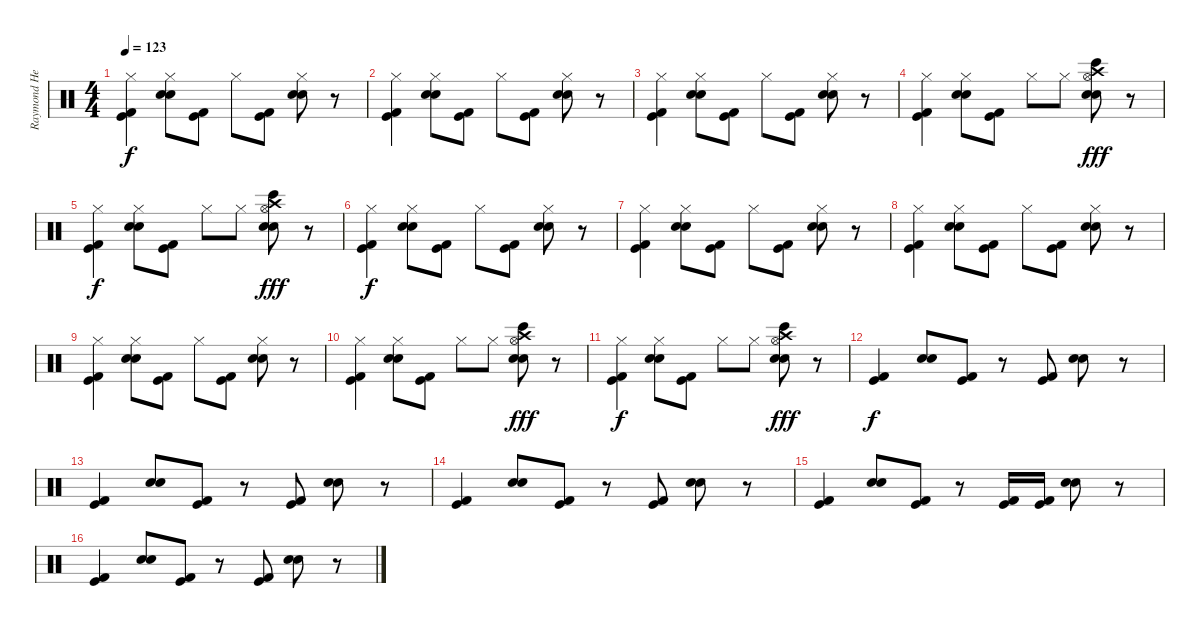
\track ("Raymond Herrera" "Raymond He") {instrument percussion}
\staff {score}
\articulation defaults
\ts (4 4)
\tempo 123
\clef neutral
\ks c
("Hi-Hat (closed)" "Kick (hit)" "Kick (hit) 2").4{dy f} ("Hi-Hat (closed)" "Electric Snare (hit)" "Electric Snare (hit)").8 ("Kick (hit)" "Kick (hit) 2").8 "Hi-Hat (closed)".8 ("Kick (hit) 2" "Kick (hit)").8 ("Hi-Hat (closed)" "Electric Snare (hit)" "Electric Snare (hit)").8 r.8 |
("Hi-Hat (closed)" "Kick (hit)" "Kick (hit) 2").4 ("Hi-Hat (closed)" "Electric Snare (hit)" "Electric Snare (hit)").8 ("Kick (hit)" "Kick (hit) 2").8 "Hi-Hat (closed)".8 ("Kick (hit) 2" "Kick (hit)").8 ("Hi-Hat (closed)" "Electric Snare (hit)" "Electric Snare (hit)").8 r.8 |
("Hi-Hat (closed)" "Kick (hit)" "Kick (hit) 2").4 ("Hi-Hat (closed)" "Electric Snare (hit)" "Electric Snare (hit)").8 ("Kick (hit)" "Kick (hit) 2").8 "Hi-Hat (closed)".8 ("Kick (hit) 2" "Kick (hit)").8 ("Hi-Hat (closed)" "Electric Snare (hit)" "Electric Snare (hit)").8 r.8 |
("Hi-Hat (closed)" "Kick (hit)" "Kick (hit) 2").4 ("Hi-Hat (closed)" "Electric Snare (hit)" "Electric Snare (hit)").8 ("Kick (hit)" "Kick (hit) 2").8 "Hi-Hat (closed)".8 "Hi-Hat (closed)".8 ("Hi-Hat (open)" "Crash high (hit)" "Electric Snare (hit)" "Electric Snare (hit)" "Bongo High (hit)").8{dy fff} r.8 |
("Hi-Hat (closed)" "Kick (hit)" "Kick (hit) 2").4{dy f} ("Hi-Hat (closed)" "Electric Snare (hit)" "Electric Snare (hit)").8 ("Kick (hit)" "Kick (hit) 2").8 "Hi-Hat (closed)".8 "Hi-Hat (closed)".8 ("Hi-Hat (open)" "Crash high (hit)" "Electric Snare (hit)" "Electric Snare (hit)" "Bongo High (hit)").8{dy fff} r.8 |
("Hi-Hat (closed)" "Kick (hit)" "Kick (hit) 2").4{dy f} ("Hi-Hat (closed)" "Electric Snare (hit)" "Electric Snare (hit)").8 ("Kick (hit)" "Kick (hit) 2").8 "Hi-Hat (closed)".8 ("Kick (hit) 2" "Kick (hit)").8 ("Hi-Hat (closed)" "Electric Snare (hit)" "Electric Snare (hit)").8 r.8 |
("Hi-Hat (closed)" "Kick (hit)" "Kick (hit) 2").4 ("Hi-Hat (closed)" "Electric Snare (hit)" "Electric Snare (hit)").8 ("Kick (hit)" "Kick (hit) 2").8 "Hi-Hat (closed)".8 ("Kick (hit) 2" "Kick (hit)").8 ("Hi-Hat (closed)" "Electric Snare (hit)" "Electric Snare (hit)").8 r.8 |
("Hi-Hat (closed)" "Kick (hit)" "Kick (hit) 2").4 ("Hi-Hat (closed)" "Electric Snare (hit)" "Electric Snare (hit)").8 ("Kick (hit)" "Kick (hit) 2").8 "Hi-Hat (closed)".8 ("Kick (hit) 2" "Kick (hit)").8 ("Hi-Hat (closed)" "Electric Snare (hit)" "Electric Snare (hit)").8 r.8 |
("Hi-Hat (closed)" "Kick (hit)" "Kick (hit) 2").4 ("Hi-Hat (closed)" "Electric Snare (hit)" "Electric Snare (hit)").8 ("Kick (hit)" "Kick (hit) 2").8 "Hi-Hat (closed)".8 ("Kick (hit) 2" "Kick (hit)").8 ("Hi-Hat (closed)" "Electric Snare (hit)" "Electric Snare (hit)").8 r.8 |
("Hi-Hat (closed)" "Kick (hit)" "Kick (hit) 2").4 ("Hi-Hat (closed)" "Electric Snare (hit)" "Electric Snare (hit)").8 ("Kick (hit)" "Kick (hit) 2").8 "Hi-Hat (closed)".8 "Hi-Hat (closed)".8 ("Hi-Hat (open)" "Crash high (hit)" "Electric Snare (hit)" "Electric Snare (hit)" "Bongo High (hit)").8{dy fff} r.8 |
("Hi-Hat (closed)" "Kick (hit)" "Kick (hit) 2").4{dy f} ("Hi-Hat (closed)" "Electric Snare (hit)" "Electric Snare (hit)").8 ("Kick (hit)" "Kick (hit) 2").8 "Hi-Hat (closed)".8 "Hi-Hat (closed)".8 ("Hi-Hat (open)" "Crash high (hit)" "Electric Snare (hit)" "Electric Snare (hit)" "Bongo High (hit)").8{dy fff} r.8 |
("Kick (hit)" "Kick (hit) 2").4{dy f} ("Electric Snare (hit)" "Electric Snare (hit)").8 ("Kick (hit)" "Kick (hit) 2").8 r.8 ("Kick (hit) 2" "Kick (hit)").8 ("Electric Snare (hit)" "Electric Snare (hit)").8 r.8 |
("Kick (hit)" "Kick (hit) 2").4 ("Electric Snare (hit)" "Electric Snare (hit)").8 ("Kick (hit)" "Kick (hit) 2").8 r.8 ("Kick (hit) 2" "Kick (hit)").8 ("Electric Snare (hit)" "Electric Snare (hit)").8 r.8 |
("Kick (hit)" "Kick (hit) 2").4 ("Electric Snare (hit)" "Electric Snare (hit)").8 ("Kick (hit)" "Kick (hit) 2").8 r.8 ("Kick (hit) 2" "Kick (hit)").8 ("Electric Snare (hit)" "Electric Snare (hit)").8 r.8 |
("Kick (hit)" "Kick (hit) 2").4 ("Electric Snare (hit)" "Electric Snare (hit)").8 ("Kick (hit)" "Kick (hit) 2").8 r.8 ("Kick (hit) 2" "Kick (hit)").16 ("Kick (hit) 2" "Kick (hit)").16 ("Electric Snare (hit)" "Electric Snare (hit)").8 r.8 |
("Kick (hit)" "Kick (hit) 2").4 ("Electric Snare (hit)" "Electric Snare (hit)").8 ("Kick (hit)" "Kick (hit) 2").8 r.8 ("Kick (hit) 2" "Kick (hit)").8 ("Electric Snare (hit)" "Electric Snare (hit)").8 r.8
